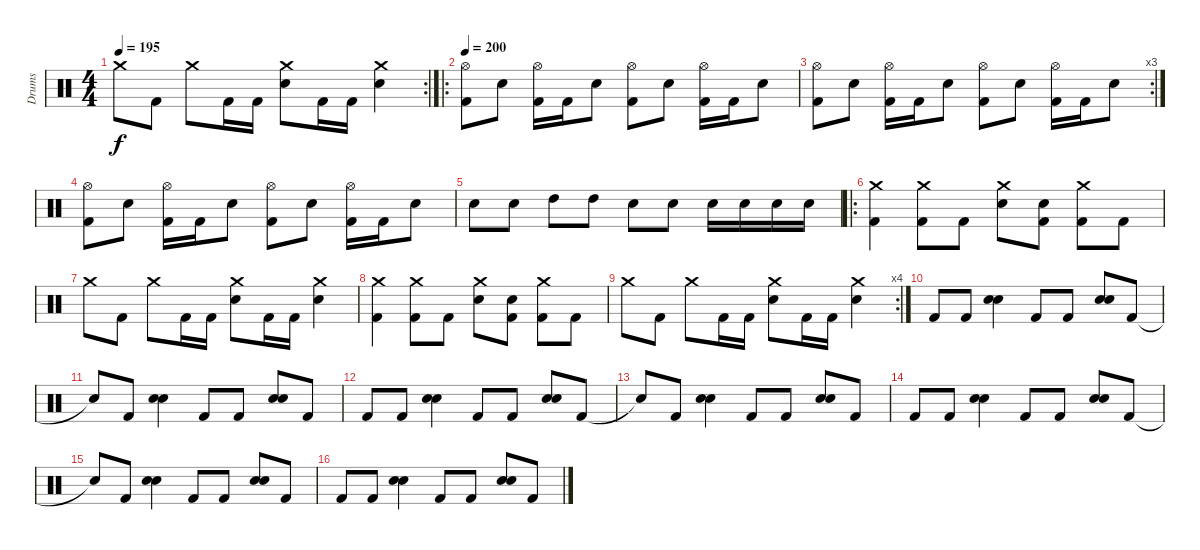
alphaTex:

\track ("Drums" "Drums") {instrument percussion}
\staff {score}
\articulation defaults
\rc 2
\ts (4 4)
\tempo 195
\clef neutral
\ks c "Crash medium (hit)".8{dy f} "Kick (hit) 2".8 "Crash medium (hit)".8 "Kick (hit) 2".16 "Kick (hit) 2".16
("Crash medium (hit)" "Electric Snare (hit)").8 "Kick (hit) 2".16 "Kick (hit) 2".16 ("Crash medium (hit)" "Electric Snare (hit)").4 |
\ro
\tempo 200
("Hi-Hat (open)" "Kick (hit) 2").8 "Electric Snare (hit)".8 ("Hi-Hat (open)" "Kick (hit) 2").16 "Kick (hit) 2".16 "Electric Snare (hit)".8 ("Hi-Hat (open)" "Kick (hit) 2").8 "Electric Snare (hit)".8 ("Hi-Hat (open)" "Kick (hit) 2").16 "Kick (hit) 2".16 "Electric Snare (hit)".8 |
\rc 3
("Hi-Hat (open)" "Kick (hit) 2").8 "Electric Snare (hit)".8 ("Hi-Hat (open)" "Kick (hit) 2").16 "Kick (hit) 2".16 "Electric Snare (hit)".8 ("Hi-Hat (open)" "Kick (hit) 2").8 "Electric Snare (hit)".8 ("Hi-Hat (open)" "Kick (hit) 2").16 "Kick (hit) 2".16 "Electric Snare (hit)".8 |
("Hi-Hat (open)" "Kick (hit) 2").8 "Electric Snare (hit)".8 ("Hi-Hat (open)" "Kick (hit) 2").16 "Kick (hit) 2".16 "Electric Snare (hit)".8 ("Hi-Hat (open)" "Kick (hit) 2").8 "Electric Snare (hit)".8 ("Hi-Hat (open)" "Kick (hit) 2").16 "Kick (hit) 2".16 "Electric Snare (hit)".8 |
"Electric Snare (hit)".8 "Electric Snare (hit)".8 "High Tom (hit)".8 "High Tom (hit)".8 "Electric Snare (hit)".8 "Electric Snare (hit)".8 "Electric Snare (hit)".16 "Electric Snare (hit)".16 "Electric Snare (hit)".16 "Electric Snare (hit)".16 |
\ro
("Crash medium (hit)" "Kick (hit) 2").4 ("Crash medium (hit)" "Kick (hit) 2").8 "Kick (hit) 2".8 ("Crash medium (hit)" "Electric Snare (hit)").8 ("Electric Snare (hit)" "Kick (hit) 2").8 ("Crash medium (hit)" "Kick (hit) 2").8 "Kick (hit) 2".8 |
"Crash medium (hit)".8 "Kick (hit) 2".8 "Crash medium (hit)".8 "Kick (hit) 2".16 "Kick (hit) 2".16 ("Crash medium (hit)" "Electric Snare (hit)").8 "Kick (hit) 2".16 "Kick (hit) 2".16 ("Crash medium (hit)" "Electric Snare (hit)").4 |
("Crash medium (hit)" "Kick (hit) 2").4 ("Crash medium (hit)" "Kick (hit) 2").8 "Kick (hit) 2".8 ("Crash medium (hit)" "Electric Snare (hit)").8 ("Electric Snare (hit)" "Kick (hit) 2").8 ("Crash medium (hit)" "Kick (hit) 2").8 "Kick (hit) 2".8 |
\rc 4 "Crash medium (hit)".8 "Kick (hit) 2".8 "Crash medium (hit)".8 "Kick (hit) 2".16 "Kick (hit) 2".16
("Crash medium (hit)" "Electric Snare (hit)").8 "Kick (hit) 2".16 "Kick (hit) 2".16 ("Crash medium (hit)" "Electric Snare (hit)").4 |
"Kick (hit) 2".8 "Kick (hit) 2".8 ("Electric Snare (hit)" "Electric Snare (hit)").4{bu 240} "Kick (hit) 2".8 "Kick (hit) 2".8 ("Electric Snare (hit)" "Electric Snare (hit)").8{bu 240} "Kick (hit) 2".8 |
"Snare (hit)"{t}.8 "Kick (hit) 2".8 ("Electric Snare (hit)" "Electric Snare (hit)").4{bu 240} "Kick (hit) 2".8 "Kick (hit) 2".8 ("Electric Snare (hit)" "Electric Snare (hit)").8{bu 240} "Kick (hit) 2".8 |
"Kick (hit) 2".8 "Kick (hit) 2".8 ("Electric Snare (hit)" "Electric Snare (hit)").4{bu 240} "Kick (hit) 2".8 "Kick (hit) 2".8 ("Electric Snare (hit)" "Electric Snare (hit)").8{bu 240} "Kick (hit) 2".8 |
"Snare (hit)"{t}.8 "Kick (hit) 2".8 ("Electric Snare (hit)" "Electric Snare (hit)").4{bu 240} "Kick (hit) 2".8 "Kick (hit) 2".8 ("Electric Snare (hit)" "Electric Snare (hit)").8{bu 240} "Kick (hit) 2".8 |
"Kick (hit) 2".8 "Kick (hit) 2".8 ("Electric Snare (hit)" "Electric Snare (hit)").4{bu 240} "Kick (hit) 2".8 "Kick (hit) 2".8 ("Electric Snare (hit)" "Electric Snare (hit)").8{bu 240} "Kick (hit) 2".8 |
"Snare (hit)"{t}.8 "Kick (hit) 2".8 ("Electric Snare (hit)" "Electric Snare (hit)").4{bu 240} "Kick (hit) 2".8 "Kick (hit) 2".8 ("Electric Snare (hit)" "Electric Snare (hit)").8{bu 240} "Kick (hit) 2".8 |
"Kick (hit) 2".8 "Kick (hit) 2".8 ("Electric Snare (hit)" "Electric Snare (hit)").4{bu 240} "Kick (hit) 2".8 "Kick (hit) 2".8 ("Electric Snare (hit)" "Electric Snare (hit)").8{bu 240} "Kick (hit) 2".8
